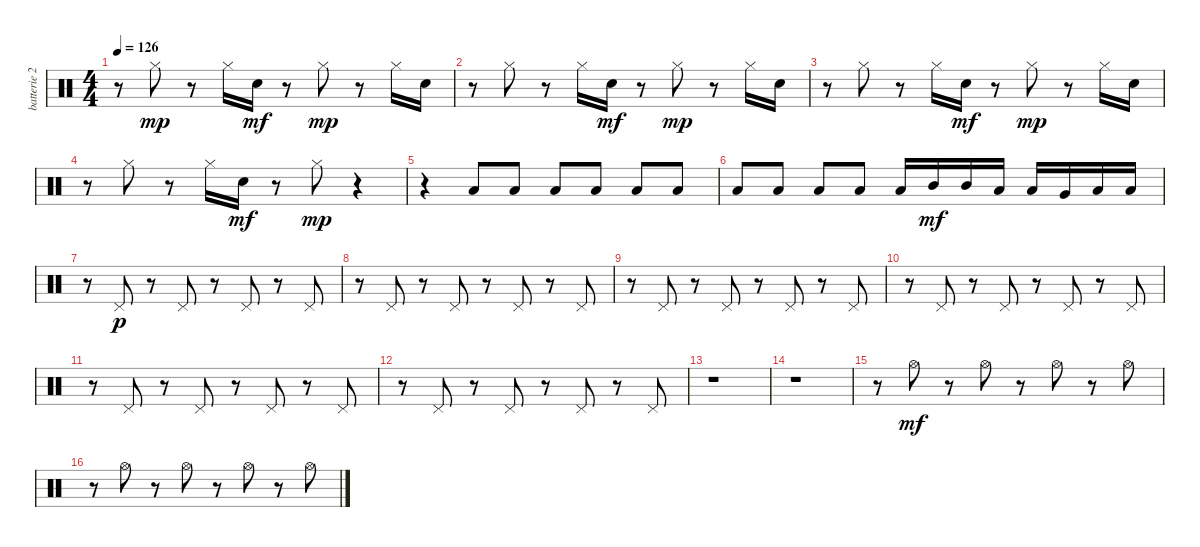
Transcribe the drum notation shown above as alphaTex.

\track ("batterie 2" "batterie 2") {instrument percussion}
\staff {score}
\articulation defaults
\ts (4 4)
\tempo 126
\clef neutral
\ks c
r.8{dy mp} "Hi-Hat (closed)".8 r.8 "Hi-Hat (closed)".16 "Electric Snare (hit)".16{dy mf} r.8 "Hi-Hat (closed)".8{dy mp} r.8 "Hi-Hat (closed)".16 "Electric Snare (hit)".16 |
r.8 "Hi-Hat (closed)".8 r.8 "Hi-Hat (closed)".16 "Electric Snare (hit)".16{dy mf} r.8 "Hi-Hat (closed)".8{dy mp} r.8 "Hi-Hat (closed)".16 "Electric Snare (hit)".16 |
r.8 "Hi-Hat (closed)".8 r.8 "Hi-Hat (closed)".16 "Electric Snare (hit)".16{dy mf} r.8 "Hi-Hat (closed)".8{dy mp} r.8 "Hi-Hat (closed)".16 "Electric Snare (hit)".16 |
r.8 "Hi-Hat (closed)".8 r.8 "Hi-Hat (closed)".16 "Electric Snare (hit)".16{dy mf} r.8 "Hi-Hat (closed)".8{dy mp} r.4 |
r.4 "Low Floor Tom (hit)".8 "Low Floor Tom (hit)".8 "Low Floor Tom (hit)".8 "Low Floor Tom (hit)".8 "Low Floor Tom (hit)".8 "Low Floor Tom (hit)".8 |
"Low Floor Tom (hit)".8 "Low Floor Tom (hit)".8 "Low Floor Tom (hit)".8 "Low Floor Tom (hit)".8 "Low Floor Tom (hit)".16 "Mid Tom (hit)".16{dy mf} "Mid Tom (hit)".16 "Low Tom (hit)".16 "Low Tom (hit)".16 "Very Low Tom (hit)".16 "Low Floor Tom (hit)".16 "Low Floor Tom (hit)".16 |
r.8 "Pedal Hi-Hat (hit)".8{dy p} r.8 "Pedal Hi-Hat (hit)".8 r.8 "Pedal Hi-Hat (hit)".8 r.8 "Pedal Hi-Hat (hit)".8 |
r.8 "Pedal Hi-Hat (hit)".8 r.8 "Pedal Hi-Hat (hit)".8 r.8 "Pedal Hi-Hat (hit)".8 r.8 "Pedal Hi-Hat (hit)".8 |
r.8 "Pedal Hi-Hat (hit)".8 r.8 "Pedal Hi-Hat (hit)".8 r.8 "Pedal Hi-Hat (hit)".8 r.8 "Pedal Hi-Hat (hit)".8 |
r.8 "Pedal Hi-Hat (hit)".8 r.8 "Pedal Hi-Hat (hit)".8 r.8 "Pedal Hi-Hat (hit)".8 r.8 "Pedal Hi-Hat (hit)".8 |
r.8 "Pedal Hi-Hat (hit)".8 r.8 "Pedal Hi-Hat (hit)".8 r.8 "Pedal Hi-Hat (hit)".8 r.8 "Pedal Hi-Hat (hit)".8 |
r.8 "Pedal Hi-Hat (hit)".8 r.8 "Pedal Hi-Hat (hit)".8 r.8 "Pedal Hi-Hat (hit)".8 r.8 "Pedal Hi-Hat (hit)".8 |
r.1 |
r.1 |
r.8 "Hi-Hat (open)".8{dy mf} r.8 "Hi-Hat (open)".8 r.8 "Hi-Hat (open)".8 r.8 "Hi-Hat (open)".8 |
r.8 "Hi-Hat (open)".8 r.8 "Hi-Hat (open)".8 r.8 "Hi-Hat (open)".8 r.8 "Hi-Hat (open)".8
